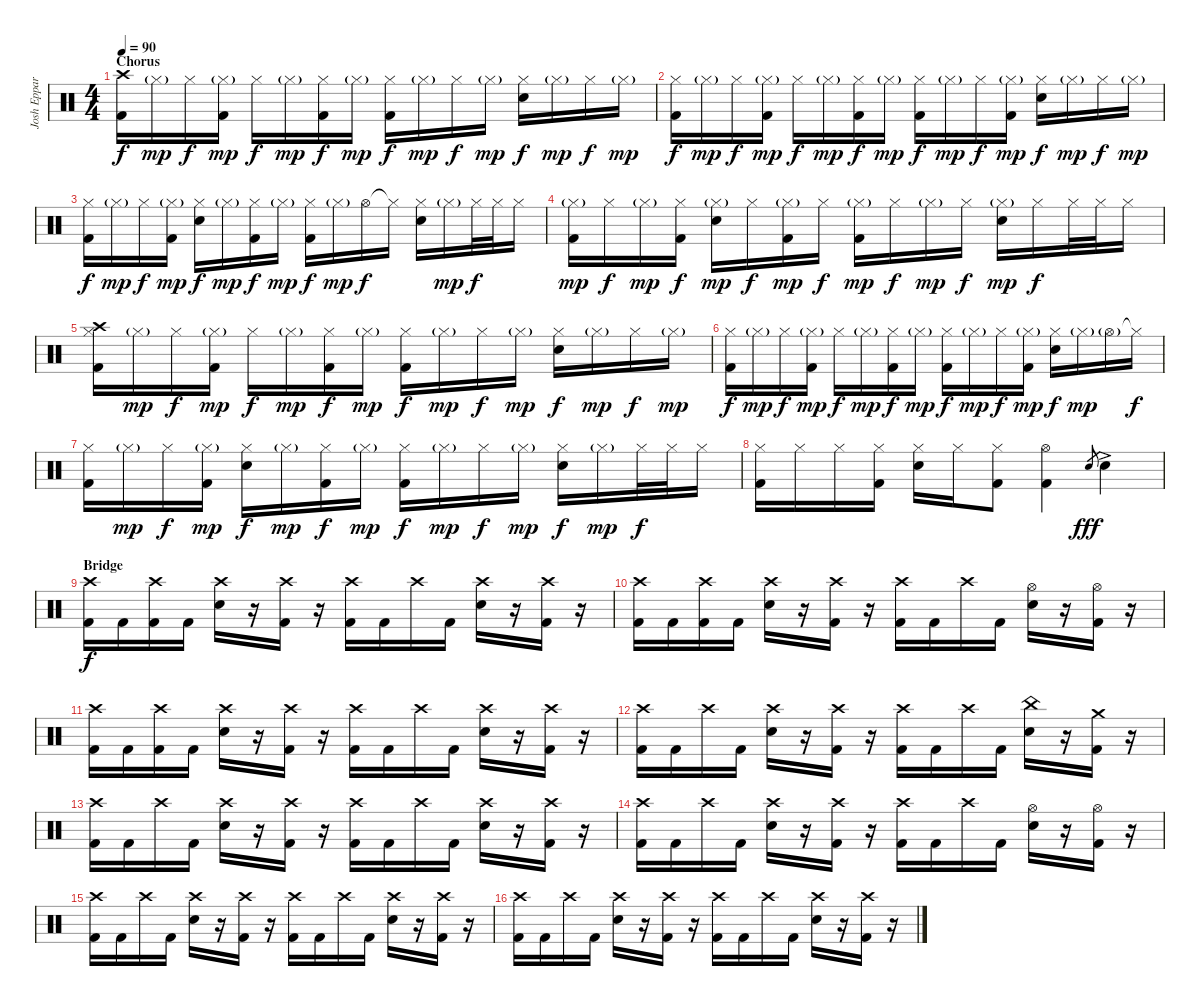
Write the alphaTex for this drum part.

\track ("Josh Eppard" "Josh Eppar") {instrument percussion}
\staff {score}
\articulation defaults
\ts (4 4)
\section ("" "Chorus")
\tempo 90
\clef neutral
\ks c
("Crash high (hit)" "Kick (hit) 2").16{dy f} "Hi-Hat (closed)"{g}.16{dy mp} "Hi-Hat (closed)".16{dy f} ("Hi-Hat (closed)"{g} "Kick (hit) 2").16{dy mp} "Hi-Hat (closed)".16{dy f} "Hi-Hat (closed)"{g}.16{dy mp} ("Hi-Hat (closed)" "Kick (hit) 2").16{dy f} "Hi-Hat (closed)"{g}.16{dy mp} ("Hi-Hat (closed)" "Kick (hit) 2").16{dy f} "Hi-Hat (closed)"{g}.16{dy mp} "Hi-Hat (closed)".16{dy f} "Hi-Hat (closed)"{g}.16{dy mp} ("Hi-Hat (closed)" "Electric Snare (hit)").16{dy f} "Hi-Hat (closed)"{g}.16{dy mp} "Hi-Hat (closed)".16{dy f} "Hi-Hat (closed)"{g}.16{dy mp} |
("Hi-Hat (closed)" "Kick (hit) 2").16{dy f} "Hi-Hat (closed)"{g}.16{dy mp} "Hi-Hat (closed)".16{dy f} ("Hi-Hat (closed)"{g} "Kick (hit) 2").16{dy mp} "Hi-Hat (closed)".16{dy f} "Hi-Hat (closed)"{g}.16{dy mp} ("Hi-Hat (closed)" "Kick (hit) 2").16{dy f} "Hi-Hat (closed)"{g}.16{dy mp} ("Hi-Hat (closed)" "Kick (hit) 2").16{dy f} "Hi-Hat (closed)"{g}.16{dy mp} "Hi-Hat (closed)".16{dy f} ("Hi-Hat (closed)"{g} "Kick (hit) 2").16{dy mp} ("Hi-Hat (closed)" "Electric Snare (hit)").16{dy f} "Hi-Hat (closed)"{g}.16{dy mp} "Hi-Hat (closed)".16{dy f} "Hi-Hat (closed)"{g}.16{dy mp} |
("Hi-Hat (closed)" "Kick (hit) 2").16{dy f} "Hi-Hat (closed)"{g}.16{dy mp} "Hi-Hat (closed)".16{dy f} ("Hi-Hat (closed)"{g} "Kick (hit) 2").16{dy mp} ("Hi-Hat (closed)" "Electric Snare (hit)").16{dy f} "Hi-Hat (closed)"{g}.16{dy mp} ("Hi-Hat (closed)" "Kick (hit) 2").16{dy f} "Hi-Hat (closed)"{g}.16{dy mp} ("Hi-Hat (closed)" "Kick (hit) 2").16{dy f} "Hi-Hat (closed)"{g}.16{dy mp} "Hi-Hat (open)".16{dy f} "Hi-Hat (closed)"{t}.16 ("Hi-Hat (closed)" "Electric Snare (hit)").16 "Hi-Hat (closed)"{g}.16{dy mp} "Hi-Hat (closed)".32{dy f} "Hi-Hat (closed)".32 "Hi-Hat (closed)".16 |
("Hi-Hat (closed)"{g} "Kick (hit) 2").16{dy mp} "Hi-Hat (closed)".16{dy f} "Hi-Hat (closed)"{g}.16{dy mp} ("Hi-Hat (closed)" "Kick (hit) 2").16{dy f} ("Hi-Hat (closed)"{g} "Electric Snare (hit)").16{dy mp} "Hi-Hat (closed)".16{dy f} ("Hi-Hat (closed)"{g} "Kick (hit) 2").16{dy mp} "Hi-Hat (closed)".16{dy f} ("Hi-Hat (closed)"{g} "Kick (hit) 2").16{dy mp} "Hi-Hat (closed)".16{dy f} "Hi-Hat (closed)"{g}.16{dy mp} "Hi-Hat (closed)".16{dy f} ("Hi-Hat (closed)"{g} "Electric Snare (hit)").16{dy mp} "Hi-Hat (closed)".16{dy f} "Hi-Hat (closed)".32 "Hi-Hat (closed)".32 "Hi-Hat (closed)".16 |
("Crash high (hit)" "Hi-Hat (closed)" "Kick (hit) 2").16 "Hi-Hat (closed)"{g}.16{dy mp} "Hi-Hat (closed)".16{dy f} ("Hi-Hat (closed)"{g} "Kick (hit) 2").16{dy mp} "Hi-Hat (closed)".16{dy f} "Hi-Hat (closed)"{g}.16{dy mp} ("Hi-Hat (closed)" "Kick (hit) 2").16{dy f} "Hi-Hat (closed)"{g}.16{dy mp} ("Hi-Hat (closed)" "Kick (hit) 2").16{dy f} "Hi-Hat (closed)"{g}.16{dy mp} "Hi-Hat (closed)".16{dy f} "Hi-Hat (closed)"{g}.16{dy mp} ("Hi-Hat (closed)" "Electric Snare (hit)").16{dy f} "Hi-Hat (closed)"{g}.16{dy mp} "Hi-Hat (closed)".16{dy f} "Hi-Hat (closed)"{g}.16{dy mp} |
("Hi-Hat (closed)" "Kick (hit) 2").16{dy f} "Hi-Hat (closed)"{g}.16{dy mp} "Hi-Hat (closed)".16{dy f} ("Hi-Hat (closed)"{g} "Kick (hit) 2").16{dy mp} "Hi-Hat (closed)".16{dy f} "Hi-Hat (closed)"{g}.16{dy mp} ("Hi-Hat (closed)" "Kick (hit) 2").16{dy f} "Hi-Hat (closed)"{g}.16{dy mp} ("Hi-Hat (closed)" "Kick (hit) 2").16{dy f} "Hi-Hat (closed)"{g}.16{dy mp} "Hi-Hat (closed)".16{dy f} ("Hi-Hat (closed)"{g} "Kick (hit) 2").16{dy mp} ("Hi-Hat (closed)" "Electric Snare (hit)").16{dy f} "Hi-Hat (closed)"{g}.16{dy mp} "Hi-Hat (open)"{g}.16 "Hi-Hat (closed)"{t}.16{dy f} |
("Hi-Hat (closed)" "Kick (hit) 2").16 "Hi-Hat (closed)"{g}.16{dy mp} "Hi-Hat (closed)".16{dy f} ("Hi-Hat (closed)"{g} "Kick (hit) 2").16{dy mp} ("Hi-Hat (closed)" "Electric Snare (hit)").16{dy f} "Hi-Hat (closed)"{g}.16{dy mp} ("Hi-Hat (closed)" "Kick (hit) 2").16{dy f} "Hi-Hat (closed)"{g}.16{dy mp} ("Hi-Hat (closed)" "Kick (hit) 2").16{dy f} "Hi-Hat (closed)"{g}.16{dy mp} "Hi-Hat (closed)".16{dy f} "Hi-Hat (closed)"{g}.16{dy mp} ("Hi-Hat (closed)" "Electric Snare (hit)").16{dy f} "Hi-Hat (closed)"{g}.16{dy mp} "Hi-Hat (closed)".32{dy f} "Hi-Hat (closed)".32 "Hi-Hat (closed)".16 |
("Hi-Hat (closed)" "Kick (hit) 2").16 "Hi-Hat (closed)".16 "Hi-Hat (closed)".16 ("Hi-Hat (closed)" "Kick (hit) 2").16 ("Hi-Hat (closed)" "Electric Snare (hit)").16 "Hi-Hat (closed)".16 ("Hi-Hat (closed)" "Kick (hit) 2").8 ("Hi-Hat (open)" "Kick (hit) 2").4 "Electric Snare (hit)".8{gr dy fff} "Electric Snare (hit)"{ac}.4 |
\section ("" "Bridge")
("Crash high (hit)" "Kick (hit) 2").16{dy f} "Kick (hit) 2".16 ("Crash high (hit)" "Kick (hit) 2").16 "Kick (hit) 2".16 ("Crash high (hit)" "Electric Snare (hit)").16 r.16 ("Crash high (hit)" "Kick (hit) 2").16 r.16 ("Crash high (hit)" "Kick (hit) 2").16 "Kick (hit) 2".16 "Crash high (hit)".16 "Kick (hit) 2".16 ("Crash high (hit)" "Electric Snare (hit)").16 r.16 ("Crash high (hit)" "Kick (hit) 2").16 r.16 |
("Crash high (hit)" "Kick (hit) 2").16 "Kick (hit) 2".16 ("Crash high (hit)" "Kick (hit) 2").16 "Kick (hit) 2".16 ("Crash high (hit)" "Electric Snare (hit)").16 r.16 ("Crash high (hit)" "Kick (hit) 2").16 r.16 ("Crash high (hit)" "Kick (hit) 2").16 "Kick (hit) 2".16 "Crash high (hit)".16 "Kick (hit) 2".16 ("Hi-Hat (open)" "Electric Snare (hit)").16 r.16 ("Hi-Hat (open)" "Kick (hit) 2").16 r.16 |
("Crash high (hit)" "Kick (hit) 2").16 "Kick (hit) 2".16 ("Crash high (hit)" "Kick (hit) 2").16 "Kick (hit) 2".16 ("Crash high (hit)" "Electric Snare (hit)").16 r.16 ("Crash high (hit)" "Kick (hit) 2").16 r.16 ("Crash high (hit)" "Kick (hit) 2").16 "Kick (hit) 2".16 "Crash high (hit)".16 "Kick (hit) 2".16 ("Crash high (hit)" "Electric Snare (hit)").16 r.16 ("Crash high (hit)" "Kick (hit) 2").16 r.16 |
("Crash high (hit)" "Kick (hit) 2").16 "Kick (hit) 2".16 "Crash high (hit)".16 "Kick (hit) 2".16 ("Crash high (hit)" "Electric Snare (hit)").16 r.16 ("Crash high (hit)" "Kick (hit) 2").16 r.16 ("Crash high (hit)" "Kick (hit) 2").16 "Kick (hit) 2".16 "Crash high (hit)".16 "Kick (hit) 2".16 ("China (hit)" "Electric Snare (hit)").16 r.16 ("Crash medium (hit)" "Kick (hit) 2").16 r.16 |
("Crash high (hit)" "Kick (hit) 2").16 "Kick (hit) 2".16 "Crash high (hit)".16 "Kick (hit) 2".16 ("Crash high (hit)" "Electric Snare (hit)").16 r.16 ("Crash high (hit)" "Kick (hit) 2").16 r.16 ("Crash high (hit)" "Kick (hit) 2").16 "Kick (hit) 2".16 "Crash high (hit)".16 "Kick (hit) 2".16 ("Crash high (hit)" "Electric Snare (hit)").16 r.16 ("Crash high (hit)" "Kick (hit) 2").16 r.16 |
("Crash high (hit)" "Kick (hit) 2").16 "Kick (hit) 2".16 "Crash high (hit)".16 "Kick (hit) 2".16 ("Crash high (hit)" "Electric Snare (hit)").16 r.16 ("Crash high (hit)" "Kick (hit) 2").16 r.16 ("Crash high (hit)" "Kick (hit) 2").16 "Kick (hit) 2".16 "Crash high (hit)".16 "Kick (hit) 2".16 ("Hi-Hat (open)" "Electric Snare (hit)").16 r.16 ("Hi-Hat (open)" "Kick (hit) 2").16 r.16 |
("Crash high (hit)" "Kick (hit) 2").16 "Kick (hit) 2".16 "Crash high (hit)".16 "Kick (hit) 2".16 ("Crash high (hit)" "Electric Snare (hit)").16 r.16 ("Crash high (hit)" "Kick (hit) 2").16 r.16 ("Crash high (hit)" "Kick (hit) 2").16 "Kick (hit) 2".16 "Crash high (hit)".16 "Kick (hit) 2".16 ("Crash high (hit)" "Electric Snare (hit)").16 r.16 ("Crash high (hit)" "Kick (hit) 2").16 r.16 |
("Crash high (hit)" "Kick (hit) 2").16 "Kick (hit) 2".16 "Crash high (hit)".16 "Kick (hit) 2".16 ("Crash high (hit)" "Electric Snare (hit)").16 r.16 ("Crash high (hit)" "Kick (hit) 2").16 r.16 ("Crash high (hit)" "Kick (hit) 2").16 "Kick (hit) 2".16 "Crash high (hit)".16 "Kick (hit) 2".16 ("Crash high (hit)" "Electric Snare (hit)").16 r.16 ("Crash high (hit)" "Kick (hit) 2").16 r.16
